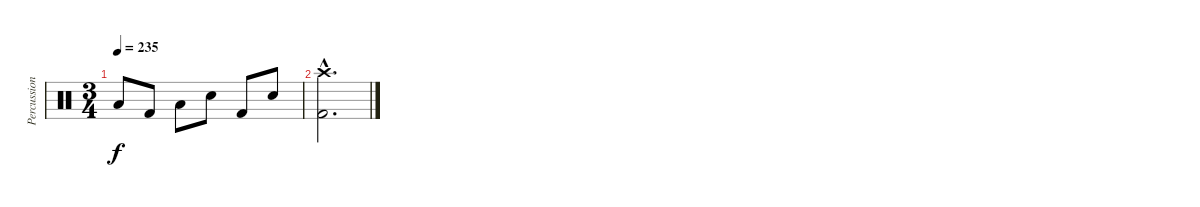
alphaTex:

\track ("Percussion" "Percussion") {instrument percussion}
\staff {score}
\articulation defaults
\ts (3 4)
\tempo 235
\clef neutral
\ks c "Low Tom (hit)".8{dy f} "Kick (hit) 2".8 "Low Tom (hit)".8 "Electric Snare (hit)".8 "Kick (hit) 2".8 "Electric Snare (hit)".8
|
("Crash high (hit)"{hac} "Kick (hit) 2"{hac}).2{d}
